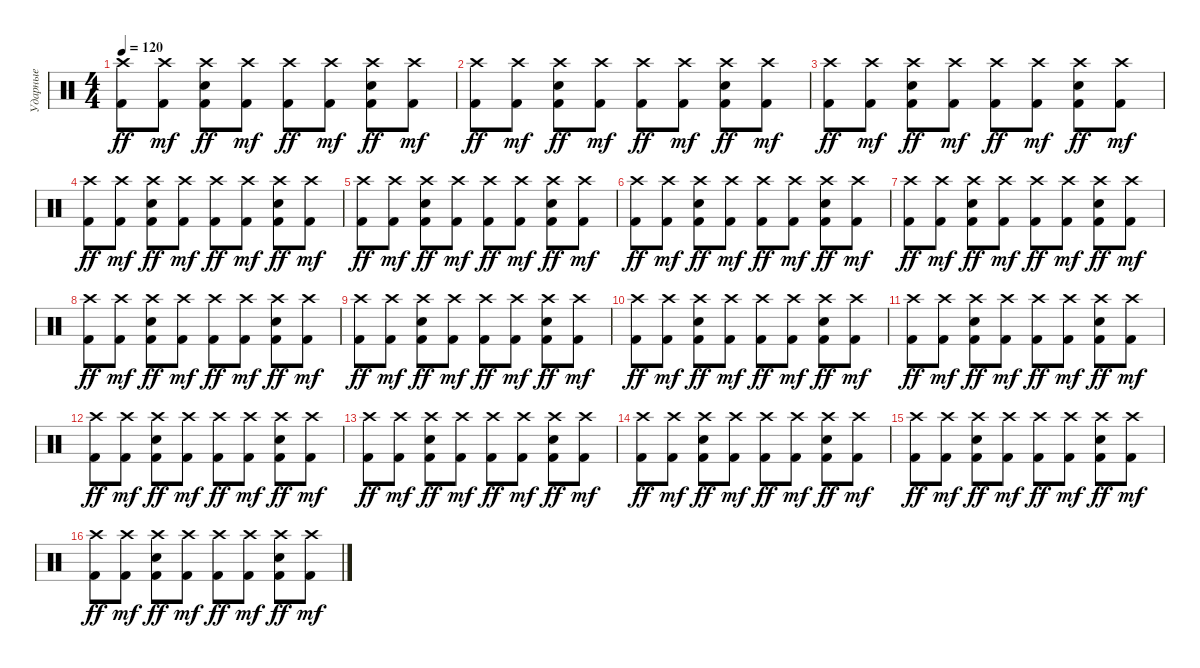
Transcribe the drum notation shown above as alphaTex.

\track ("Ударные" "Ударные") {instrument percussion}
\staff {score}
\articulation defaults
\ts (4 4)
\tempo 120
\clef neutral
\ks c
("Crash high (hit)" "Kick (hit) 2").8{dy ff} ("Crash high (hit)" "Kick (hit) 2").8{dy mf} ("Crash high (hit)" "Electric Snare (hit)" "Kick (hit) 2").8{dy ff} ("Crash high (hit)" "Kick (hit) 2").8{dy mf} ("Crash high (hit)" "Kick (hit) 2").8{dy ff} ("Crash high (hit)" "Kick (hit) 2").8{dy mf} ("Crash high (hit)" "Electric Snare (hit)" "Kick (hit) 2").8{dy ff} ("Crash high (hit)" "Kick (hit) 2").8{dy mf} |
("Crash high (hit)" "Kick (hit) 2").8{dy ff} ("Crash high (hit)" "Kick (hit) 2").8{dy mf} ("Crash high (hit)" "Electric Snare (hit)" "Kick (hit) 2").8{dy ff} ("Crash high (hit)" "Kick (hit) 2").8{dy mf} ("Crash high (hit)" "Kick (hit) 2").8{dy ff} ("Crash high (hit)" "Kick (hit) 2").8{dy mf} ("Crash high (hit)" "Electric Snare (hit)" "Kick (hit) 2").8{dy ff} ("Crash high (hit)" "Kick (hit) 2").8{dy mf} |
("Crash high (hit)" "Kick (hit) 2").8{dy ff} ("Crash high (hit)" "Kick (hit) 2").8{dy mf} ("Crash high (hit)" "Electric Snare (hit)" "Kick (hit) 2").8{dy ff} ("Crash high (hit)" "Kick (hit) 2").8{dy mf} ("Crash high (hit)" "Kick (hit) 2").8{dy ff} ("Crash high (hit)" "Kick (hit) 2").8{dy mf} ("Crash high (hit)" "Electric Snare (hit)" "Kick (hit) 2").8{dy ff} ("Crash high (hit)" "Kick (hit) 2").8{dy mf} |
("Crash high (hit)" "Kick (hit) 2").8{dy ff} ("Crash high (hit)" "Kick (hit) 2").8{dy mf} ("Crash high (hit)" "Electric Snare (hit)" "Kick (hit) 2").8{dy ff} ("Crash high (hit)" "Kick (hit) 2").8{dy mf} ("Crash high (hit)" "Kick (hit) 2").8{dy ff} ("Crash high (hit)" "Kick (hit) 2").8{dy mf} ("Crash high (hit)" "Electric Snare (hit)" "Kick (hit) 2").8{dy ff} ("Crash high (hit)" "Kick (hit) 2").8{dy mf} |
("Crash high (hit)" "Kick (hit) 2").8{dy ff} ("Crash high (hit)" "Kick (hit) 2").8{dy mf} ("Crash high (hit)" "Electric Snare (hit)" "Kick (hit) 2").8{dy ff} ("Crash high (hit)" "Kick (hit) 2").8{dy mf} ("Crash high (hit)" "Kick (hit) 2").8{dy ff} ("Crash high (hit)" "Kick (hit) 2").8{dy mf} ("Crash high (hit)" "Electric Snare (hit)" "Kick (hit) 2").8{dy ff} ("Crash high (hit)" "Kick (hit) 2").8{dy mf} |
("Crash high (hit)" "Kick (hit) 2").8{dy ff} ("Crash high (hit)" "Kick (hit) 2").8{dy mf} ("Crash high (hit)" "Electric Snare (hit)" "Kick (hit) 2").8{dy ff} ("Crash high (hit)" "Kick (hit) 2").8{dy mf} ("Crash high (hit)" "Kick (hit) 2").8{dy ff} ("Crash high (hit)" "Kick (hit) 2").8{dy mf} ("Crash high (hit)" "Electric Snare (hit)" "Kick (hit) 2").8{dy ff} ("Crash high (hit)" "Kick (hit) 2").8{dy mf} |
("Crash high (hit)" "Kick (hit) 2").8{dy ff} ("Crash high (hit)" "Kick (hit) 2").8{dy mf} ("Crash high (hit)" "Electric Snare (hit)" "Kick (hit) 2").8{dy ff} ("Crash high (hit)" "Kick (hit) 2").8{dy mf} ("Crash high (hit)" "Kick (hit) 2").8{dy ff} ("Crash high (hit)" "Kick (hit) 2").8{dy mf} ("Crash high (hit)" "Electric Snare (hit)" "Kick (hit) 2").8{dy ff} ("Crash high (hit)" "Kick (hit) 2").8{dy mf} |
("Crash high (hit)" "Kick (hit) 2").8{dy ff} ("Crash high (hit)" "Kick (hit) 2").8{dy mf} ("Crash high (hit)" "Electric Snare (hit)" "Kick (hit) 2").8{dy ff} ("Crash high (hit)" "Kick (hit) 2").8{dy mf} ("Crash high (hit)" "Kick (hit) 2").8{dy ff} ("Crash high (hit)" "Kick (hit) 2").8{dy mf} ("Crash high (hit)" "Electric Snare (hit)" "Kick (hit) 2").8{dy ff} ("Crash high (hit)" "Kick (hit) 2").8{dy mf} |
("Crash high (hit)" "Kick (hit) 2").8{dy ff} ("Crash high (hit)" "Kick (hit) 2").8{dy mf} ("Crash high (hit)" "Electric Snare (hit)" "Kick (hit) 2").8{dy ff} ("Crash high (hit)" "Kick (hit) 2").8{dy mf} ("Crash high (hit)" "Kick (hit) 2").8{dy ff} ("Crash high (hit)" "Kick (hit) 2").8{dy mf} ("Crash high (hit)" "Electric Snare (hit)" "Kick (hit) 2").8{dy ff} ("Crash high (hit)" "Kick (hit) 2").8{dy mf} |
("Crash high (hit)" "Kick (hit) 2").8{dy ff} ("Crash high (hit)" "Kick (hit) 2").8{dy mf} ("Crash high (hit)" "Electric Snare (hit)" "Kick (hit) 2").8{dy ff} ("Crash high (hit)" "Kick (hit) 2").8{dy mf} ("Crash high (hit)" "Kick (hit) 2").8{dy ff} ("Crash high (hit)" "Kick (hit) 2").8{dy mf} ("Crash high (hit)" "Electric Snare (hit)" "Kick (hit) 2").8{dy ff} ("Crash high (hit)" "Kick (hit) 2").8{dy mf} |
("Crash high (hit)" "Kick (hit) 2").8{dy ff} ("Crash high (hit)" "Kick (hit) 2").8{dy mf} ("Crash high (hit)" "Electric Snare (hit)" "Kick (hit) 2").8{dy ff} ("Crash high (hit)" "Kick (hit) 2").8{dy mf} ("Crash high (hit)" "Kick (hit) 2").8{dy ff} ("Crash high (hit)" "Kick (hit) 2").8{dy mf} ("Crash high (hit)" "Electric Snare (hit)" "Kick (hit) 2").8{dy ff} ("Crash high (hit)" "Kick (hit) 2").8{dy mf} |
("Crash high (hit)" "Kick (hit) 2").8{dy ff} ("Crash high (hit)" "Kick (hit) 2").8{dy mf} ("Crash high (hit)" "Electric Snare (hit)" "Kick (hit) 2").8{dy ff} ("Crash high (hit)" "Kick (hit) 2").8{dy mf} ("Crash high (hit)" "Kick (hit) 2").8{dy ff} ("Crash high (hit)" "Kick (hit) 2").8{dy mf} ("Crash high (hit)" "Electric Snare (hit)" "Kick (hit) 2").8{dy ff} ("Crash high (hit)" "Kick (hit) 2").8{dy mf} |
("Crash high (hit)" "Kick (hit) 2").8{dy ff} ("Crash high (hit)" "Kick (hit) 2").8{dy mf} ("Crash high (hit)" "Electric Snare (hit)" "Kick (hit) 2").8{dy ff} ("Crash high (hit)" "Kick (hit) 2").8{dy mf} ("Crash high (hit)" "Kick (hit) 2").8{dy ff} ("Crash high (hit)" "Kick (hit) 2").8{dy mf} ("Crash high (hit)" "Electric Snare (hit)" "Kick (hit) 2").8{dy ff} ("Crash high (hit)" "Kick (hit) 2").8{dy mf} |
("Crash high (hit)" "Kick (hit) 2").8{dy ff} ("Crash high (hit)" "Kick (hit) 2").8{dy mf} ("Crash high (hit)" "Electric Snare (hit)" "Kick (hit) 2").8{dy ff} ("Crash high (hit)" "Kick (hit) 2").8{dy mf} ("Crash high (hit)" "Kick (hit) 2").8{dy ff} ("Crash high (hit)" "Kick (hit) 2").8{dy mf} ("Crash high (hit)" "Electric Snare (hit)" "Kick (hit) 2").8{dy ff} ("Crash high (hit)" "Kick (hit) 2").8{dy mf} |
("Crash high (hit)" "Kick (hit) 2").8{dy ff} ("Crash high (hit)" "Kick (hit) 2").8{dy mf} ("Crash high (hit)" "Electric Snare (hit)" "Kick (hit) 2").8{dy ff} ("Crash high (hit)" "Kick (hit) 2").8{dy mf} ("Crash high (hit)" "Kick (hit) 2").8{dy ff} ("Crash high (hit)" "Kick (hit) 2").8{dy mf} ("Crash high (hit)" "Electric Snare (hit)" "Kick (hit) 2").8{dy ff} ("Crash high (hit)" "Kick (hit) 2").8{dy mf} |
("Crash high (hit)" "Kick (hit) 2").8{dy ff} ("Crash high (hit)" "Kick (hit) 2").8{dy mf} ("Crash high (hit)" "Electric Snare (hit)" "Kick (hit) 2").8{dy ff} ("Crash high (hit)" "Kick (hit) 2").8{dy mf} ("Crash high (hit)" "Kick (hit) 2").8{dy ff} ("Crash high (hit)" "Kick (hit) 2").8{dy mf} ("Crash high (hit)" "Electric Snare (hit)" "Kick (hit) 2").8{dy ff} ("Crash high (hit)" "Kick (hit) 2").8{dy mf}
